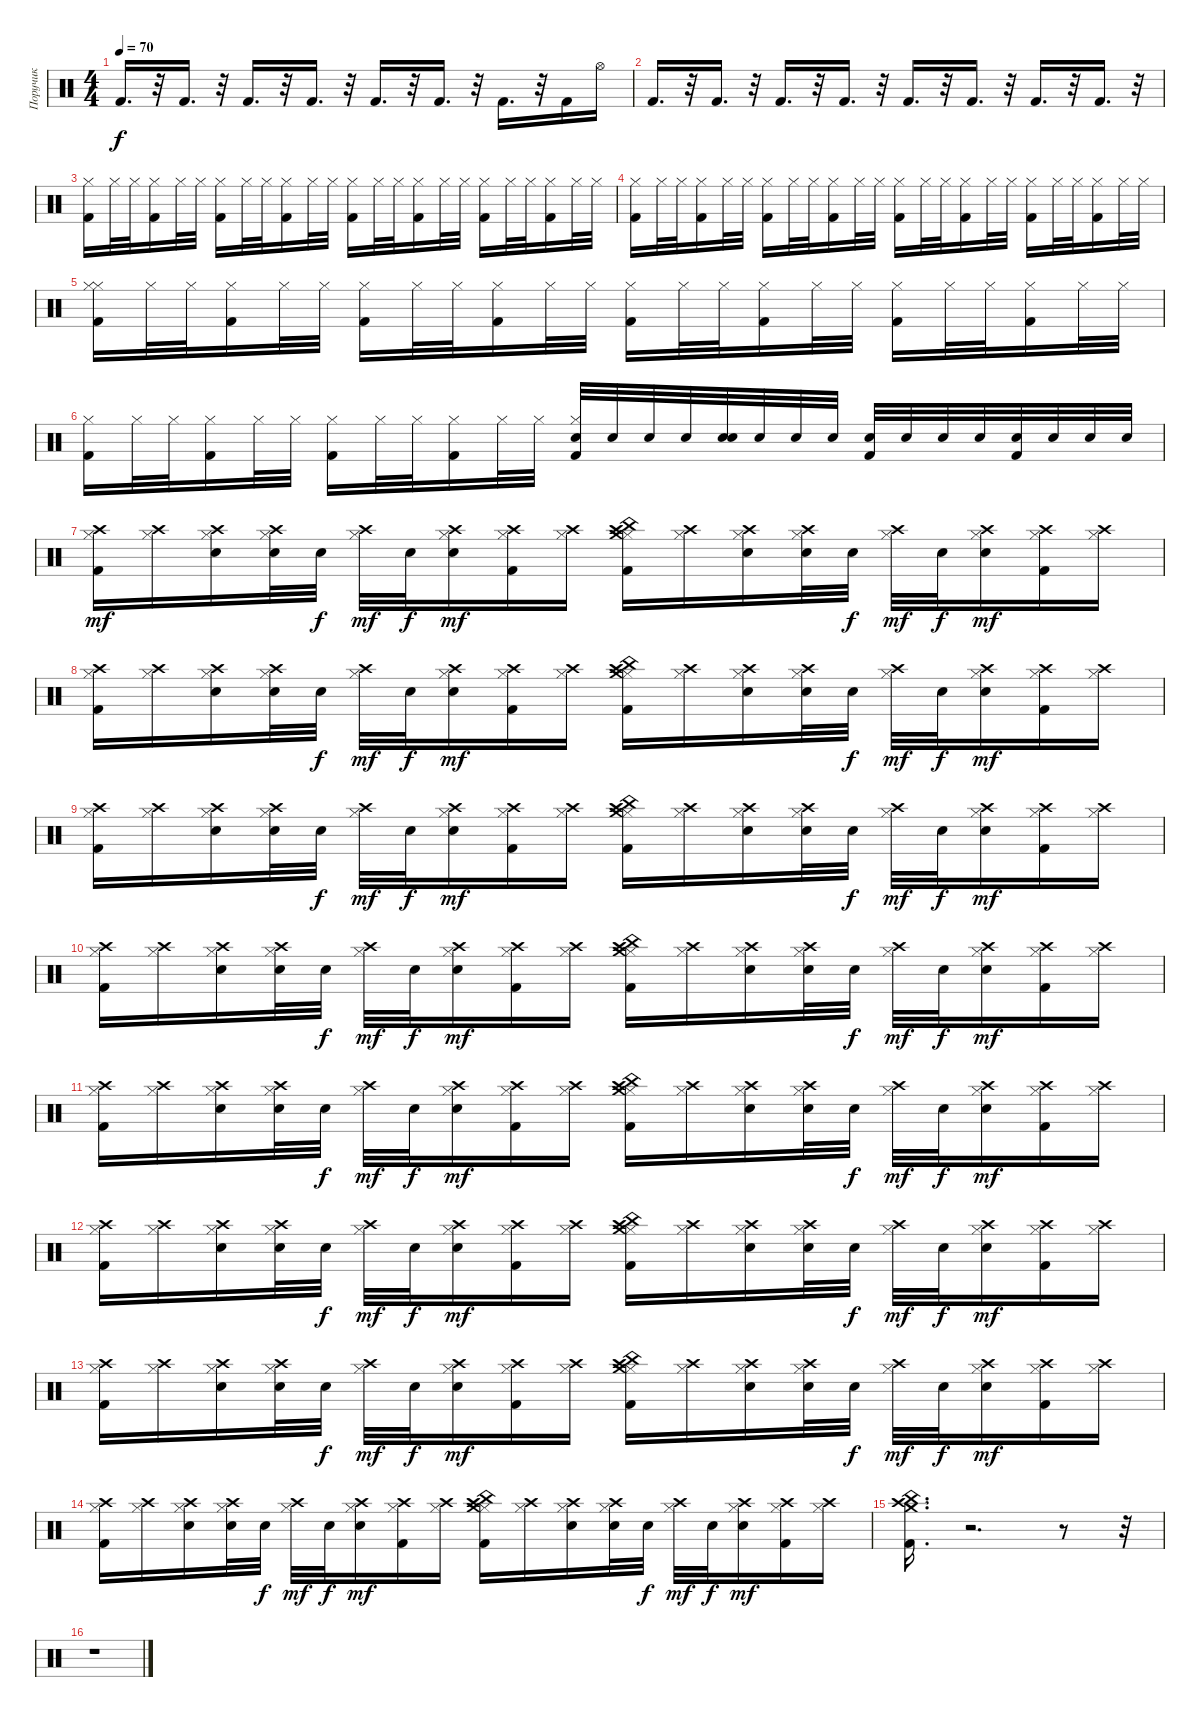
\track ("Поручик" "Поручик") {instrument percussion}
\staff {score}
\articulation defaults
\ts (4 4)
\tempo 70
\clef neutral
\ks c "Kick (hit) 2".16{d dy f}
r.32 "Kick (hit) 2".16{d} r.32 "Kick (hit) 2".16{d} r.32 "Kick (hit) 2".16{d} r.32 "Kick (hit) 2".16{d} r.32 "Kick (hit) 2".16{d} r.32 "Kick (hit) 2".16{d} r.32 "Kick (hit) 2".16 "Hi-Hat (open)".16 |
"Kick (hit) 2".16{d} r.32 "Kick (hit) 2".16{d} r.32 "Kick (hit) 2".16{d} r.32 "Kick (hit) 2".16{d} r.32 "Kick (hit) 2".16{d} r.32 "Kick (hit) 2".16{d} r.32 "Kick (hit) 2".16{d} r.32 "Kick (hit) 2".16{d} r.32 |
("Hi-Hat (closed)" "Kick (hit) 2").16 "Hi-Hat (closed)".32 "Hi-Hat (closed)".32 ("Kick (hit) 2" "Hi-Hat (closed)").16 "Hi-Hat (closed)".32 "Hi-Hat (closed)".32 ("Hi-Hat (closed)" "Kick (hit) 2").16 "Hi-Hat (closed)".32 "Hi-Hat (closed)".32 ("Hi-Hat (closed)" "Kick (hit) 2").16 "Hi-Hat (closed)".32 "Hi-Hat (closed)".32 ("Hi-Hat (closed)" "Kick (hit) 2").16 "Hi-Hat (closed)".32 "Hi-Hat (closed)".32 ("Hi-Hat (closed)" "Kick (hit) 2").16 "Hi-Hat (closed)".32 "Hi-Hat (closed)".32 ("Hi-Hat (closed)" "Kick (hit) 2").16 "Hi-Hat (closed)".32 "Hi-Hat (closed)".32 ("Hi-Hat (closed)" "Kick (hit) 2").16 "Hi-Hat (closed)".32 "Hi-Hat (closed)".32 |
("Hi-Hat (closed)" "Kick (hit) 2").16 "Hi-Hat (closed)".32 "Hi-Hat (closed)".32 ("Hi-Hat (closed)" "Kick (hit) 2").16 "Hi-Hat (closed)".32 "Hi-Hat (closed)".32 ("Hi-Hat (closed)" "Kick (hit) 2").16 "Hi-Hat (closed)".32 "Hi-Hat (closed)".32 ("Hi-Hat (closed)" "Kick (hit) 2").16 "Hi-Hat (closed)".32 "Hi-Hat (closed)".32 ("Hi-Hat (closed)" "Kick (hit) 2").16 "Hi-Hat (closed)".32 "Hi-Hat (closed)".32 ("Hi-Hat (closed)" "Kick (hit) 2").16 "Hi-Hat (closed)".32 "Hi-Hat (closed)".32 ("Hi-Hat (closed)" "Kick (hit) 2").16 "Hi-Hat (closed)".32 "Hi-Hat (closed)".32 ("Hi-Hat (closed)" "Kick (hit) 2").16 "Hi-Hat (closed)".32 "Hi-Hat (closed)".32 |
("Hi-Hat (closed)" "Kick (hit) 2" "Hi-Hat (closed)").16 "Hi-Hat (closed)".32 "Hi-Hat (closed)".32 ("Kick (hit) 2" "Hi-Hat (closed)").16 "Hi-Hat (closed)".32 "Hi-Hat (closed)".32 ("Hi-Hat (closed)" "Kick (hit) 2").16 "Hi-Hat (closed)".32 "Hi-Hat (closed)".32 ("Hi-Hat (closed)" "Kick (hit) 2").16 "Hi-Hat (closed)".32 "Hi-Hat (closed)".32 ("Hi-Hat (closed)" "Kick (hit) 2").16 "Hi-Hat (closed)".32 "Hi-Hat (closed)".32 ("Hi-Hat (closed)" "Kick (hit) 2").16 "Hi-Hat (closed)".32 "Hi-Hat (closed)".32 ("Hi-Hat (closed)" "Kick (hit) 2").16 "Hi-Hat (closed)".32 "Hi-Hat (closed)".32 ("Hi-Hat (closed)" "Kick (hit) 2").16 "Hi-Hat (closed)".32 "Hi-Hat (closed)".32 |
("Hi-Hat (closed)" "Kick (hit) 2").16 "Hi-Hat (closed)".32 "Hi-Hat (closed)".32 ("Hi-Hat (closed)" "Kick (hit) 2").16 "Hi-Hat (closed)".32 "Hi-Hat (closed)".32 ("Hi-Hat (closed)" "Kick (hit) 2").16 "Hi-Hat (closed)".32 "Hi-Hat (closed)".32 ("Hi-Hat (closed)" "Kick (hit) 2").16 "Hi-Hat (closed)".32 "Hi-Hat (closed)".32 ("Electric Snare (hit)" "Hi-Hat (closed)" "Kick (hit) 2").32 "Electric Snare (hit)".32 "Electric Snare (hit)".32 "Electric Snare (hit)".32 ("Electric Snare (hit)" "Snare (hit) 2").32 "Electric Snare (hit)".32 "Electric Snare (hit)".32 "Electric Snare (hit)".32 ("Electric Snare (hit)" "Kick (hit) 2").32 "Electric Snare (hit)".32 "Electric Snare (hit)".32 "Electric Snare (hit)".32 ("Electric Snare (hit)" "Kick (hit) 2").32 "Electric Snare (hit)".32 "Electric Snare (hit)".32 "Electric Snare (hit)".32 |
("Hi-Hat (closed)" "Crash high (hit)" "Kick (hit) 2").16{dy mf} ("Hi-Hat (closed)" "Crash high (hit)").16 ("Hi-Hat (closed)" "Crash high (hit)" "Electric Snare (hit)").16 ("Hi-Hat (closed)" "Crash high (hit)" "Electric Snare (hit)").32 "Electric Snare (hit)".32{dy f} ("Hi-Hat (closed)" "Crash high (hit)").32{dy mf} "Electric Snare (hit)".32{dy f} ("Hi-Hat (closed)" "Crash high (hit)" "Electric Snare (hit)").16{dy mf} ("Hi-Hat (closed)" "Crash high (hit)" "Kick (hit) 2").16 ("Hi-Hat (closed)" "Crash high (hit)").16 ("Hi-Hat (closed)" "Crash high (hit)" "China (hit)" "Crash medium (hit)" "Kick (hit) 2").16 ("Hi-Hat (closed)" "Crash high (hit)").16 ("Hi-Hat (closed)" "Crash high (hit)" "Electric Snare (hit)").16 ("Hi-Hat (closed)" "Crash high (hit)" "Electric Snare (hit)").32 "Electric Snare (hit)".32{dy f} ("Hi-Hat (closed)" "Crash high (hit)").32{dy mf} "Electric Snare (hit)".32{dy f} ("Hi-Hat (closed)" "Crash high (hit)" "Electric Snare (hit)").16{dy mf} ("Hi-Hat (closed)" "Crash high (hit)" "Kick (hit) 2").16 ("Hi-Hat (closed)" "Crash high (hit)").16 |
("Hi-Hat (closed)" "Crash high (hit)" "Kick (hit) 2").16 ("Hi-Hat (closed)" "Crash high (hit)").16 ("Hi-Hat (closed)" "Crash high (hit)" "Electric Snare (hit)").16 ("Hi-Hat (closed)" "Crash high (hit)" "Electric Snare (hit)").32 "Electric Snare (hit)".32{dy f} ("Hi-Hat (closed)" "Crash high (hit)").32{dy mf} "Electric Snare (hit)".32{dy f} ("Hi-Hat (closed)" "Crash high (hit)" "Electric Snare (hit)").16{dy mf} ("Hi-Hat (closed)" "Crash high (hit)" "Kick (hit) 2").16 ("Hi-Hat (closed)" "Crash high (hit)").16 ("Hi-Hat (closed)" "Crash high (hit)" "China (hit)" "Crash medium (hit)" "Kick (hit) 2").16 ("Hi-Hat (closed)" "Crash high (hit)").16 ("Hi-Hat (closed)" "Crash high (hit)" "Electric Snare (hit)").16 ("Hi-Hat (closed)" "Crash high (hit)" "Electric Snare (hit)").32 "Electric Snare (hit)".32{dy f} ("Hi-Hat (closed)" "Crash high (hit)").32{dy mf} "Electric Snare (hit)".32{dy f} ("Hi-Hat (closed)" "Crash high (hit)" "Electric Snare (hit)").16{dy mf} ("Hi-Hat (closed)" "Crash high (hit)" "Kick (hit) 2").16 ("Hi-Hat (closed)" "Crash high (hit)").16 |
("Hi-Hat (closed)" "Crash high (hit)" "Kick (hit) 2").16 ("Hi-Hat (closed)" "Crash high (hit)").16 ("Hi-Hat (closed)" "Crash high (hit)" "Electric Snare (hit)").16 ("Hi-Hat (closed)" "Crash high (hit)" "Electric Snare (hit)").32 "Electric Snare (hit)".32{dy f} ("Hi-Hat (closed)" "Crash high (hit)").32{dy mf} "Electric Snare (hit)".32{dy f} ("Hi-Hat (closed)" "Crash high (hit)" "Electric Snare (hit)").16{dy mf} ("Hi-Hat (closed)" "Crash high (hit)" "Kick (hit) 2").16 ("Hi-Hat (closed)" "Crash high (hit)").16 ("Hi-Hat (closed)" "Crash high (hit)" "China (hit)" "Crash medium (hit)" "Kick (hit) 2").16 ("Hi-Hat (closed)" "Crash high (hit)").16 ("Hi-Hat (closed)" "Crash high (hit)" "Electric Snare (hit)").16 ("Hi-Hat (closed)" "Crash high (hit)" "Electric Snare (hit)").32 "Electric Snare (hit)".32{dy f} ("Hi-Hat (closed)" "Crash high (hit)").32{dy mf} "Electric Snare (hit)".32{dy f} ("Hi-Hat (closed)" "Crash high (hit)" "Electric Snare (hit)").16{dy mf} ("Hi-Hat (closed)" "Crash high (hit)" "Kick (hit) 2").16 ("Hi-Hat (closed)" "Crash high (hit)").16 |
("Hi-Hat (closed)" "Crash high (hit)" "Kick (hit) 2").16 ("Hi-Hat (closed)" "Crash high (hit)").16 ("Hi-Hat (closed)" "Crash high (hit)" "Electric Snare (hit)").16 ("Hi-Hat (closed)" "Crash high (hit)" "Electric Snare (hit)").32 "Electric Snare (hit)".32{dy f} ("Hi-Hat (closed)" "Crash high (hit)").32{dy mf} "Electric Snare (hit)".32{dy f} ("Hi-Hat (closed)" "Crash high (hit)" "Electric Snare (hit)").16{dy mf} ("Hi-Hat (closed)" "Crash high (hit)" "Kick (hit) 2").16 ("Hi-Hat (closed)" "Crash high (hit)").16 ("Hi-Hat (closed)" "Crash high (hit)" "China (hit)" "Crash medium (hit)" "Kick (hit) 2").16 ("Hi-Hat (closed)" "Crash high (hit)").16 ("Hi-Hat (closed)" "Crash high (hit)" "Electric Snare (hit)").16 ("Hi-Hat (closed)" "Crash high (hit)" "Electric Snare (hit)").32 "Electric Snare (hit)".32{dy f} ("Hi-Hat (closed)" "Crash high (hit)").32{dy mf} "Electric Snare (hit)".32{dy f} ("Hi-Hat (closed)" "Crash high (hit)" "Electric Snare (hit)").16{dy mf} ("Hi-Hat (closed)" "Crash high (hit)" "Kick (hit) 2").16 ("Hi-Hat (closed)" "Crash high (hit)").16 |
("Hi-Hat (closed)" "Crash high (hit)" "Kick (hit) 2").16 ("Hi-Hat (closed)" "Crash high (hit)").16 ("Hi-Hat (closed)" "Crash high (hit)" "Electric Snare (hit)").16 ("Hi-Hat (closed)" "Crash high (hit)" "Electric Snare (hit)").32 "Electric Snare (hit)".32{dy f} ("Hi-Hat (closed)" "Crash high (hit)").32{dy mf} "Electric Snare (hit)".32{dy f} ("Hi-Hat (closed)" "Crash high (hit)" "Electric Snare (hit)").16{dy mf} ("Hi-Hat (closed)" "Crash high (hit)" "Kick (hit) 2").16 ("Hi-Hat (closed)" "Crash high (hit)").16 ("Hi-Hat (closed)" "Crash high (hit)" "China (hit)" "Crash medium (hit)" "Kick (hit) 2").16 ("Hi-Hat (closed)" "Crash high (hit)").16 ("Hi-Hat (closed)" "Crash high (hit)" "Electric Snare (hit)").16 ("Hi-Hat (closed)" "Crash high (hit)" "Electric Snare (hit)").32 "Electric Snare (hit)".32{dy f} ("Hi-Hat (closed)" "Crash high (hit)").32{dy mf} "Electric Snare (hit)".32{dy f} ("Hi-Hat (closed)" "Crash high (hit)" "Electric Snare (hit)").16{dy mf} ("Hi-Hat (closed)" "Crash high (hit)" "Kick (hit) 2").16 ("Hi-Hat (closed)" "Crash high (hit)").16 |
("Hi-Hat (closed)" "Crash high (hit)" "Kick (hit) 2").16 ("Hi-Hat (closed)" "Crash high (hit)").16 ("Hi-Hat (closed)" "Crash high (hit)" "Electric Snare (hit)").16 ("Hi-Hat (closed)" "Crash high (hit)" "Electric Snare (hit)").32 "Electric Snare (hit)".32{dy f} ("Hi-Hat (closed)" "Crash high (hit)").32{dy mf} "Electric Snare (hit)".32{dy f} ("Hi-Hat (closed)" "Crash high (hit)" "Electric Snare (hit)").16{dy mf} ("Hi-Hat (closed)" "Crash high (hit)" "Kick (hit) 2").16 ("Hi-Hat (closed)" "Crash high (hit)").16 ("Hi-Hat (closed)" "Crash high (hit)" "China (hit)" "Crash medium (hit)" "Kick (hit) 2").16 ("Hi-Hat (closed)" "Crash high (hit)").16 ("Hi-Hat (closed)" "Crash high (hit)" "Electric Snare (hit)").16 ("Hi-Hat (closed)" "Crash high (hit)" "Electric Snare (hit)").32 "Electric Snare (hit)".32{dy f} ("Hi-Hat (closed)" "Crash high (hit)").32{dy mf} "Electric Snare (hit)".32{dy f} ("Hi-Hat (closed)" "Crash high (hit)" "Electric Snare (hit)").16{dy mf} ("Hi-Hat (closed)" "Crash high (hit)" "Kick (hit) 2").16 ("Hi-Hat (closed)" "Crash high (hit)").16 |
("Hi-Hat (closed)" "Crash high (hit)" "Kick (hit) 2").16 ("Hi-Hat (closed)" "Crash high (hit)").16 ("Hi-Hat (closed)" "Crash high (hit)" "Electric Snare (hit)").16 ("Hi-Hat (closed)" "Crash high (hit)" "Electric Snare (hit)").32 "Electric Snare (hit)".32{dy f} ("Hi-Hat (closed)" "Crash high (hit)").32{dy mf} "Electric Snare (hit)".32{dy f} ("Hi-Hat (closed)" "Crash high (hit)" "Electric Snare (hit)").16{dy mf} ("Hi-Hat (closed)" "Crash high (hit)" "Kick (hit) 2").16 ("Hi-Hat (closed)" "Crash high (hit)").16 ("Hi-Hat (closed)" "Crash high (hit)" "China (hit)" "Crash medium (hit)" "Kick (hit) 2").16 ("Hi-Hat (closed)" "Crash high (hit)").16 ("Hi-Hat (closed)" "Crash high (hit)" "Electric Snare (hit)").16 ("Hi-Hat (closed)" "Crash high (hit)" "Electric Snare (hit)").32 "Electric Snare (hit)".32{dy f} ("Hi-Hat (closed)" "Crash high (hit)").32{dy mf} "Electric Snare (hit)".32{dy f} ("Hi-Hat (closed)" "Crash high (hit)" "Electric Snare (hit)").16{dy mf} ("Hi-Hat (closed)" "Crash high (hit)" "Kick (hit) 2").16 ("Hi-Hat (closed)" "Crash high (hit)").16 |
("Hi-Hat (closed)" "Crash high (hit)" "Kick (hit) 2").16 ("Hi-Hat (closed)" "Crash high (hit)").16 ("Hi-Hat (closed)" "Crash high (hit)" "Electric Snare (hit)").16 ("Hi-Hat (closed)" "Crash high (hit)" "Electric Snare (hit)").32 "Electric Snare (hit)".32{dy f} ("Hi-Hat (closed)" "Crash high (hit)").32{dy mf} "Electric Snare (hit)".32{dy f} ("Hi-Hat (closed)" "Crash high (hit)" "Electric Snare (hit)").16{dy mf} ("Hi-Hat (closed)" "Crash high (hit)" "Kick (hit) 2").16 ("Hi-Hat (closed)" "Crash high (hit)").16 ("Hi-Hat (closed)" "Crash high (hit)" "China (hit)" "Crash medium (hit)" "Kick (hit) 2").16 ("Hi-Hat (closed)" "Crash high (hit)").16 ("Hi-Hat (closed)" "Crash high (hit)" "Electric Snare (hit)").16 ("Hi-Hat (closed)" "Crash high (hit)" "Electric Snare (hit)").32 "Electric Snare (hit)".32{dy f} ("Hi-Hat (closed)" "Crash high (hit)").32{dy mf} "Electric Snare (hit)".32{dy f} ("Hi-Hat (closed)" "Crash high (hit)" "Electric Snare (hit)").16{dy mf} ("Hi-Hat (closed)" "Crash high (hit)" "Kick (hit) 2").16 ("Hi-Hat (closed)" "Crash high (hit)").16 |
("Crash high (hit)" "China (hit)" "Crash medium (hit)" "Kick (hit) 2").16{d} r.2{d} r.8 r.32 |
r.1
